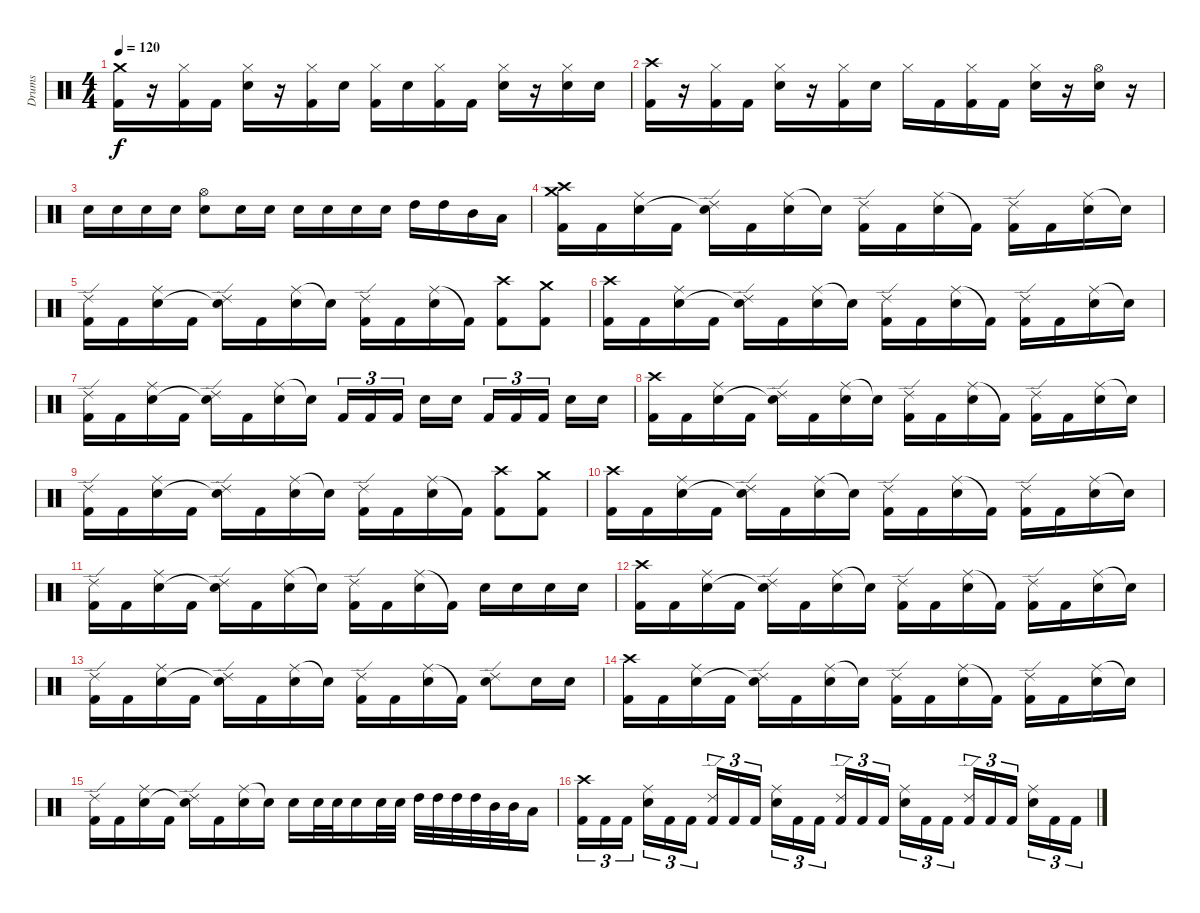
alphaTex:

\track ("Drums" "Drums") {instrument percussion}
\staff {score}
\articulation defaults
\ts (4 4)
\tempo 120
\clef neutral
\ks c
("Crash medium (hit)" "Kick (hit) 2").16{dy f} r.16 ("Hi-Hat (closed)" "Kick (hit) 2").16 "Kick (hit) 2".16 ("Hi-Hat (closed)" "Snare (hit) 2").16 r.16 ("Hi-Hat (closed)" "Kick (hit) 2").16 "Snare (hit) 2".16 ("Hi-Hat (closed)" "Kick (hit) 2").16 "Snare (hit) 2".16 ("Hi-Hat (closed)" "Kick (hit) 2").16 "Kick (hit) 2".16 ("Hi-Hat (closed)" "Snare (hit) 2").16 r.16 ("Hi-Hat (closed)" "Snare (hit) 2").16 "Snare (hit) 2".16 |
("Crash high (hit)" "Kick (hit) 2").16 r.16 ("Hi-Hat (closed)" "Kick (hit) 2").16 "Kick (hit) 2".16 ("Hi-Hat (closed)" "Snare (hit) 2").16 r.16 ("Hi-Hat (closed)" "Kick (hit) 2").16 "Snare (hit) 2".16 "Hi-Hat (closed)".16 "Kick (hit) 2".16 ("Hi-Hat (closed)" "Kick (hit) 2").16 "Kick (hit) 2".16 ("Hi-Hat (closed)" "Snare (hit) 2").16 r.16 ("Hi-Hat (open)" "Snare (hit) 2").16 r.16 |
"Snare (hit) 2".16 "Snare (hit) 2".16 "Snare (hit) 2".16 "Snare (hit) 2".16 ("Hi-Hat (open)" "Snare (hit) 2").8 "Snare (hit) 2".16 "Snare (hit) 2".16 "Snare (hit) 2".16 "Snare (hit) 2".16 "Snare (hit) 2".16 "Snare (hit) 2".16 "High Tom (hit)".16 "High Tom (hit)".16 "Mid Tom (hit)".16 "Low Tom (hit)".16 |
("Crash high (hit)" "Kick (hit) 2" "Crash medium (hit)").16 "Kick (hit) 2".16 ("Ride (middle)" "Snare (hit) 2").16 "Kick (hit) 2".16 ("Ride (edge) 2" "Snare (hit)"{t}).16 "Kick (hit) 2".16 ("Ride (middle)" "Snare (hit) 2").16 "Snare (hit)"{t}.16 ("Ride (edge) 2" "Kick (hit) 2").16 "Kick (hit) 2".16 ("Ride (middle)" "Snare (hit) 2").16 "Kick (hit) 2"{t}.16 ("Ride (edge) 2" "Kick (hit) 2").16 "Kick (hit) 2".16 ("Ride (middle)" "Snare (hit) 2").16 "Snare (hit)"{t}.16 |
("Ride (edge) 2" "Kick (hit) 2").16 "Kick (hit) 2".16 ("Ride (middle)" "Snare (hit) 2").16 "Kick (hit) 2".16 ("Ride (edge) 2" "Snare (hit)"{t}).16 "Kick (hit) 2".16 ("Ride (middle)" "Snare (hit) 2").16 "Snare (hit)"{t}.16 ("Ride (edge) 2" "Kick (hit) 2").16 "Kick (hit) 2".16 ("Ride (middle)" "Snare (hit) 2").16 "Kick (hit) 2"{t}.16 ("Crash high (hit)" "Kick (hit) 2").8 ("Crash medium (hit)" "Kick (hit) 2").8 |
("Crash high (hit)" "Kick (hit) 2").16 "Kick (hit) 2".16 ("Ride (middle)" "Snare (hit) 2").16 "Kick (hit) 2".16 ("Ride (edge) 2" "Snare (hit)"{t}).16 "Kick (hit) 2".16 ("Ride (middle)" "Snare (hit) 2").16 "Snare (hit)"{t}.16 ("Ride (edge) 2" "Kick (hit) 2").16 "Kick (hit) 2".16 ("Ride (middle)" "Snare (hit) 2").16 "Kick (hit) 2"{t}.16 ("Ride (edge) 2" "Kick (hit) 2").16 "Kick (hit) 2".16 ("Ride (middle)" "Snare (hit) 2").16 "Snare (hit)"{t}.16 |
("Ride (edge) 2" "Kick (hit) 2").16 "Kick (hit) 2".16 ("Ride (middle)" "Snare (hit) 2").16 "Kick (hit) 2".16 ("Ride (edge) 2" "Snare (hit)"{t}).16 "Kick (hit) 2".16 ("Ride (middle)" "Snare (hit) 2").16 "Snare (hit)"{t}.16 "Kick (hit) 2".16{tu (3 2)} "Kick (hit) 2".16{tu (3 2)} "Kick (hit) 2".16{tu (3 2)} "Snare (hit) 2".16 "Snare (hit) 2".16 "Kick (hit) 2".16{tu (3 2)} "Kick (hit) 2".16{tu (3 2)} "Kick (hit) 2".16{tu (3 2)} "Snare (hit) 2".16 "Snare (hit) 2".16 |
("Crash high (hit)" "Kick (hit) 2").16 "Kick (hit) 2".16 ("Ride (middle)" "Snare (hit) 2").16 "Kick (hit) 2".16 ("Ride (edge) 2" "Snare (hit)"{t}).16 "Kick (hit) 2".16 ("Ride (middle)" "Snare (hit) 2").16 "Snare (hit)"{t}.16 ("Ride (edge) 2" "Kick (hit) 2").16 "Kick (hit) 2".16 ("Ride (middle)" "Snare (hit) 2").16 "Kick (hit) 2"{t}.16 ("Ride (edge) 2" "Kick (hit) 2").16 "Kick (hit) 2".16 ("Ride (middle)" "Snare (hit) 2").16 "Snare (hit)"{t}.16 |
("Ride (edge) 2" "Kick (hit) 2").16 "Kick (hit) 2".16 ("Ride (middle)" "Snare (hit) 2").16 "Kick (hit) 2".16 ("Ride (edge) 2" "Snare (hit)"{t}).16 "Kick (hit) 2".16 ("Ride (middle)" "Snare (hit) 2").16 "Snare (hit)"{t}.16 ("Ride (edge) 2" "Kick (hit) 2").16 "Kick (hit) 2".16 ("Ride (middle)" "Snare (hit) 2").16 "Kick (hit) 2"{t}.16 ("Crash high (hit)" "Kick (hit) 2").8 ("Crash medium (hit)" "Kick (hit) 2").8 |
("Crash high (hit)" "Kick (hit) 2").16 "Kick (hit) 2".16 ("Ride (middle)" "Snare (hit) 2").16 "Kick (hit) 2".16 ("Ride (edge) 2" "Snare (hit)"{t}).16 "Kick (hit) 2".16 ("Ride (middle)" "Snare (hit) 2").16 "Snare (hit)"{t}.16 ("Ride (edge) 2" "Kick (hit) 2").16 "Kick (hit) 2".16 ("Ride (middle)" "Snare (hit) 2").16 "Kick (hit) 2"{t}.16 ("Ride (edge) 2" "Kick (hit) 2").16 "Kick (hit) 2".16 ("Ride (middle)" "Snare (hit) 2").16 "Snare (hit)"{t}.16 |
("Ride (edge) 2" "Kick (hit) 2").16 "Kick (hit) 2".16 ("Ride (middle)" "Snare (hit) 2").16 "Kick (hit) 2".16 ("Ride (edge) 2" "Snare (hit)"{t}).16 "Kick (hit) 2".16 ("Ride (middle)" "Snare (hit) 2").16 "Snare (hit)"{t}.16 ("Ride (edge) 2" "Kick (hit) 2").16 "Kick (hit) 2".16 ("Ride (middle)" "Snare (hit) 2").16 "Kick (hit) 2"{t}.16 "Snare (hit) 2".16 "Snare (hit) 2".16 "Snare (hit) 2".16 "Snare (hit) 2".16 |
("Crash high (hit)" "Kick (hit) 2").16 "Kick (hit) 2".16 ("Ride (middle)" "Snare (hit) 2").16 "Kick (hit) 2".16 ("Ride (edge) 2" "Snare (hit)"{t}).16 "Kick (hit) 2".16 ("Ride (middle)" "Snare (hit) 2").16 "Snare (hit)"{t}.16 ("Ride (edge) 2" "Kick (hit) 2").16 "Kick (hit) 2".16 ("Ride (middle)" "Snare (hit) 2").16 "Kick (hit) 2"{t}.16 ("Ride (edge) 2" "Kick (hit) 2").16 "Kick (hit) 2".16 ("Ride (middle)" "Snare (hit) 2").16 "Snare (hit)"{t}.16 |
("Ride (edge) 2" "Kick (hit) 2").16 "Kick (hit) 2".16 ("Ride (middle)" "Snare (hit) 2").16 "Kick (hit) 2".16 ("Ride (edge) 2" "Snare (hit)"{t}).16 "Kick (hit) 2".16 ("Ride (middle)" "Snare (hit) 2").16 "Snare (hit)"{t}.16 ("Ride (edge) 2" "Kick (hit) 2").16 "Kick (hit) 2".16 ("Ride (middle)" "Snare (hit) 2").16 "Kick (hit) 2"{t}.16 ("Ride (edge) 2" "Snare (hit) 2").8 "Snare (hit) 2".16 "Snare (hit) 2".16 |
("Crash high (hit)" "Kick (hit) 2").16 "Kick (hit) 2".16 ("Ride (middle)" "Snare (hit) 2").16 "Kick (hit) 2".16 ("Ride (edge) 2" "Snare (hit)"{t}).16 "Kick (hit) 2".16 ("Ride (middle)" "Snare (hit) 2").16 "Snare (hit)"{t}.16 ("Ride (edge) 2" "Kick (hit) 2").16 "Kick (hit) 2".16 ("Ride (middle)" "Snare (hit) 2").16 "Kick (hit) 2"{t}.16 ("Ride (edge) 2" "Kick (hit) 2").16 "Kick (hit) 2".16 ("Ride (middle)" "Snare (hit) 2").16 "Snare (hit)"{t}.16 |
("Ride (edge) 2" "Kick (hit) 2").16 "Kick (hit) 2".16 ("Ride (middle)" "Snare (hit) 2").16 "Kick (hit) 2".16 ("Ride (edge) 2" "Snare (hit)"{t}).16 "Kick (hit) 2".16 ("Ride (middle)" "Snare (hit) 2").16 "Snare (hit)"{t}.16 "Snare (hit) 2".16 "Snare (hit) 2".32 "Snare (hit) 2".32 "Snare (hit) 2".16 "Snare (hit) 2".32 "Snare (hit) 2".32 "High Tom (hit)".32 "High Tom (hit)".32 "High Tom (hit)".32 "High Tom (hit)".32 "Mid Tom (hit)".32 "Mid Tom (hit)".32 "Low Tom (hit)".16 |
("Crash high (hit)" "Kick (hit) 2").16{tu (3 2)} "Kick (hit) 2".16{tu (3 2)} "Kick (hit) 2".16{tu (3 2)} ("Ride (middle)" "Snare (hit) 2").16{tu (3 2)} "Kick (hit) 2".16{tu (3 2)} "Kick (hit) 2".16{tu (3 2)} ("Ride (edge) 2" "Kick (hit) 2").16{tu (3 2)} "Kick (hit) 2".16{tu (3 2)} "Kick (hit) 2".16{tu (3 2)} ("Ride (middle)" "Snare (hit) 2").16{tu (3 2)} "Kick (hit) 2".16{tu (3 2)} "Kick (hit) 2".16{tu (3 2)} ("Ride (edge) 2" "Kick (hit) 2").16{tu (3 2)} "Kick (hit) 2".16{tu (3 2)} "Kick (hit) 2".16{tu (3 2)} ("Ride (middle)" "Snare (hit) 2").16{tu (3 2)} "Kick (hit) 2".16{tu (3 2)} "Kick (hit) 2".16{tu (3 2)} ("Ride (edge) 2" "Kick (hit) 2").16{tu (3 2)} "Kick (hit) 2".16{tu (3 2)} "Kick (hit) 2".16{tu (3 2)} ("Ride (middle)" "Snare (hit) 2").16{tu (3 2)} "Kick (hit) 2".16{tu (3 2)} "Kick (hit) 2".16{tu (3 2)}
